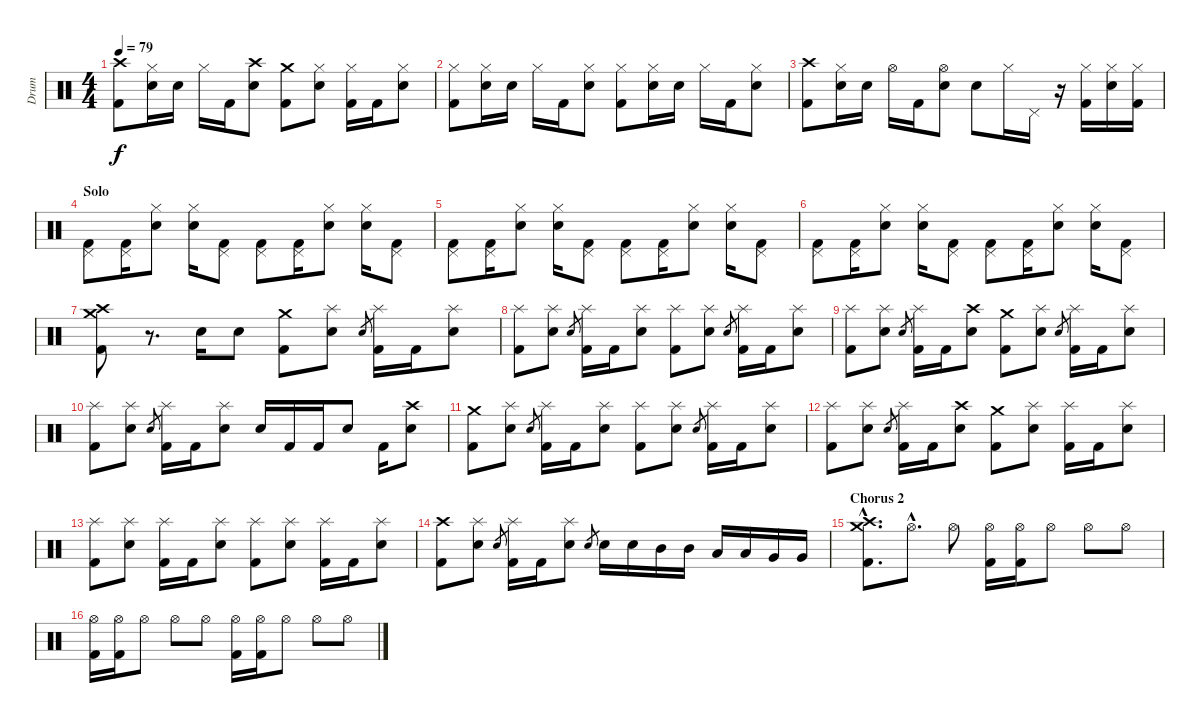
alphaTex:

\track ("Drum" "Drum") {instrument percussion}
\staff {score}
\articulation defaults
\ts (4 4)
\tempo 79
\clef neutral
\ks c
("Kick (hit) 2" "Crash high (hit)").8{dy f} ("Hi-Hat (closed)" "Electric Snare (hit)").16 "Electric Snare (hit)".16 "Hi-Hat (closed)".16 "Kick (hit) 2".16 ("Electric Snare (hit)" "Crash high (hit)").8 ("Kick (hit) 2" "Crash medium (hit)").8 ("Hi-Hat (closed)" "Electric Snare (hit)").8 ("Hi-Hat (closed)" "Kick (hit) 2").16 "Kick (hit) 2".16 ("Hi-Hat (closed)" "Electric Snare (hit)").8 |
("Hi-Hat (closed)" "Kick (hit) 2").8 ("Hi-Hat (closed)" "Electric Snare (hit)").16 "Electric Snare (hit)".16 "Hi-Hat (closed)".16 "Kick (hit) 2".16 ("Hi-Hat (closed)" "Electric Snare (hit)").8 ("Hi-Hat (closed)" "Kick (hit) 2").8 ("Hi-Hat (closed)" "Electric Snare (hit)").16 "Electric Snare (hit)".16 "Hi-Hat (closed)".16 "Kick (hit) 2".16 ("Hi-Hat (closed)" "Electric Snare (hit)").8 |
("Kick (hit) 2" "Crash high (hit)").8 ("Hi-Hat (closed)" "Electric Snare (hit)").16 "Electric Snare (hit)".16 "Hi-Hat (open)".16 "Kick (hit) 2".16 ("Hi-Hat (open)" "Electric Snare (hit)").8 "Electric Snare (hit)".8 "Hi-Hat (closed)".16 "Pedal Hi-Hat (hit)".16 r.16 ("Hi-Hat (closed)" "Kick (hit) 2").16 ("Hi-Hat (closed)" "Electric Snare (hit)").16 ("Hi-Hat (closed)" "Kick (hit) 2").16 |
\section ("" "Solo")
("Pedal Hi-Hat (hit)" "Kick (hit) 2").8 ("Pedal Hi-Hat (hit)" "Kick (hit) 2").16 ("Hi-Hat (closed)" "Electric Snare (hit)").8 ("Hi-Hat (closed)" "Electric Snare (hit)").16 ("Pedal Hi-Hat (hit)" "Kick (hit) 2").8 ("Pedal Hi-Hat (hit)" "Kick (hit) 2").8 ("Pedal Hi-Hat (hit)" "Kick (hit) 2").16 ("Hi-Hat (closed)" "Electric Snare (hit)").8 ("Hi-Hat (closed)" "Electric Snare (hit)").16 ("Pedal Hi-Hat (hit)" "Kick (hit) 2").8 |
("Pedal Hi-Hat (hit)" "Kick (hit) 2").8 ("Pedal Hi-Hat (hit)" "Kick (hit) 2").16 ("Hi-Hat (closed)" "Electric Snare (hit)").8 ("Hi-Hat (closed)" "Electric Snare (hit)").16 ("Pedal Hi-Hat (hit)" "Kick (hit) 2").8 ("Pedal Hi-Hat (hit)" "Kick (hit) 2").8 ("Pedal Hi-Hat (hit)" "Kick (hit) 2").16 ("Hi-Hat (closed)" "Electric Snare (hit)").8 ("Hi-Hat (closed)" "Electric Snare (hit)").16 ("Pedal Hi-Hat (hit)" "Kick (hit) 2").8 |
("Pedal Hi-Hat (hit)" "Kick (hit) 2").8 ("Pedal Hi-Hat (hit)" "Kick (hit) 2").16 ("Hi-Hat (closed)" "Electric Snare (hit)").8 ("Hi-Hat (closed)" "Electric Snare (hit)").16 ("Pedal Hi-Hat (hit)" "Kick (hit) 2").8 ("Pedal Hi-Hat (hit)" "Kick (hit) 2").8 ("Pedal Hi-Hat (hit)" "Kick (hit) 2").16 ("Hi-Hat (closed)" "Electric Snare (hit)").8 ("Hi-Hat (closed)" "Electric Snare (hit)").16 ("Pedal Hi-Hat (hit)" "Kick (hit) 2").8 |
("Kick (hit) 2" "Crash high (hit)" "Crash medium (hit)").8 r.8{d} "Electric Snare (hit)".16 "Electric Snare (hit)".8 ("Kick (hit) 2" "Crash medium (hit)").8 ("Splash (hit)" "Electric Snare (hit)").8 "Electric Snare (hit)".8{gr} ("Splash (hit)" "Kick (hit) 2").16 "Kick (hit) 2".16 ("Splash (hit)" "Electric Snare (hit)").8 |
("Splash (hit)" "Kick (hit) 2").8 ("Splash (hit)" "Electric Snare (hit)").8 "Electric Snare (hit)".8{gr} ("Splash (hit)" "Kick (hit) 2").16 "Kick (hit) 2".16 ("Splash (hit)" "Electric Snare (hit)").8 ("Splash (hit)" "Kick (hit) 2").8 ("Splash (hit)" "Electric Snare (hit)").8 "Electric Snare (hit)".8{gr} ("Splash (hit)" "Kick (hit) 2").16 "Kick (hit) 2".16 ("Splash (hit)" "Electric Snare (hit)").8 |
("Splash (hit)" "Kick (hit) 2").8 ("Splash (hit)" "Electric Snare (hit)").8 "Electric Snare (hit)".8{gr} ("Splash (hit)" "Kick (hit) 2").16 "Kick (hit) 2".16 ("Electric Snare (hit)" "Crash high (hit)").8 ("Kick (hit) 2" "Crash medium (hit)").8 ("Splash (hit)" "Electric Snare (hit)").8 "Electric Snare (hit)".8{gr} ("Splash (hit)" "Kick (hit) 2").16 "Kick (hit) 2".16 ("Splash (hit)" "Electric Snare (hit)").8 |
("Splash (hit)" "Kick (hit) 2").8 ("Splash (hit)" "Electric Snare (hit)").8 "Electric Snare (hit)".8{gr} ("Splash (hit)" "Kick (hit) 2").16 "Kick (hit) 2".16 ("Splash (hit)" "Electric Snare (hit)").8 "Electric Snare (hit)".16 "Kick (hit) 2".16 "Kick (hit) 2".16 "Electric Snare (hit)".8 "Kick (hit) 2".16 ("Electric Snare (hit)" "Crash high (hit)").8 |
\section ("" "")
("Kick (hit) 2" "Crash medium (hit)").8 ("Splash (hit)" "Electric Snare (hit)").8 "Electric Snare (hit)".8{gr} ("Splash (hit)" "Kick (hit) 2").16 "Kick (hit) 2".16 ("Splash (hit)" "Electric Snare (hit)").8 ("Splash (hit)" "Kick (hit) 2").8 ("Splash (hit)" "Electric Snare (hit)").8 "Electric Snare (hit)".8{gr} ("Splash (hit)" "Kick (hit) 2").16 "Kick (hit) 2".16 ("Splash (hit)" "Electric Snare (hit)").8 |
("Splash (hit)" "Kick (hit) 2").8 ("Splash (hit)" "Electric Snare (hit)").8 "Electric Snare (hit)".8{gr} ("Splash (hit)" "Kick (hit) 2").16 "Kick (hit) 2".16 ("Electric Snare (hit)" "Crash high (hit)").8 ("Kick (hit) 2" "Crash medium (hit)").8 ("Splash (hit)" "Electric Snare (hit)").8 ("Splash (hit)" "Kick (hit) 2").16 "Kick (hit) 2".16 ("Splash (hit)" "Electric Snare (hit)").8 |
("Splash (hit)" "Kick (hit) 2").8 ("Splash (hit)" "Electric Snare (hit)").8 ("Splash (hit)" "Kick (hit) 2").16 "Kick (hit) 2".16 ("Splash (hit)" "Electric Snare (hit)").8 ("Splash (hit)" "Kick (hit) 2").8 ("Splash (hit)" "Electric Snare (hit)").8 ("Splash (hit)" "Kick (hit) 2").16 "Kick (hit) 2".16 ("Splash (hit)" "Electric Snare (hit)").8 |
("Kick (hit) 2" "Crash high (hit)").8 ("Splash (hit)" "Electric Snare (hit)").8 "Electric Snare (hit)".8{gr} ("Splash (hit)" "Kick (hit) 2").16 "Kick (hit) 2".16 ("Splash (hit)" "Electric Snare (hit)").8 "Electric Snare (hit)".8{gr} "Electric Snare (hit)".16 "Electric Snare (hit)".16 "Mid Tom (hit)".16 "Mid Tom (hit)".16 "Low Tom (hit)".16 "Low Tom (hit)".16 "Very Low Tom (hit)".16 "Very Low Tom (hit)".16 |
\section ("" "Chorus 2")
("Kick (hit) 2"{hac} "Crash high (hit)"{hac} "Crash medium (hit)"{hac}).8{d} "Hi-Hat (open)"{hac}.8{d} "Hi-Hat (open)".8 ("Hi-Hat (open)" "Kick (hit) 2").16 ("Hi-Hat (open)" "Kick (hit) 2").16 "Hi-Hat (open)".8 "Hi-Hat (open)".8 "Hi-Hat (open)".8 |
("Hi-Hat (open)" "Kick (hit) 2").16 ("Hi-Hat (open)" "Kick (hit) 2").16 "Hi-Hat (open)".8 "Hi-Hat (open)".8 "Hi-Hat (open)".8 ("Hi-Hat (open)" "Kick (hit) 2").16 ("Hi-Hat (open)" "Kick (hit) 2").16 "Hi-Hat (open)".8 "Hi-Hat (open)".8 "Hi-Hat (open)".8
